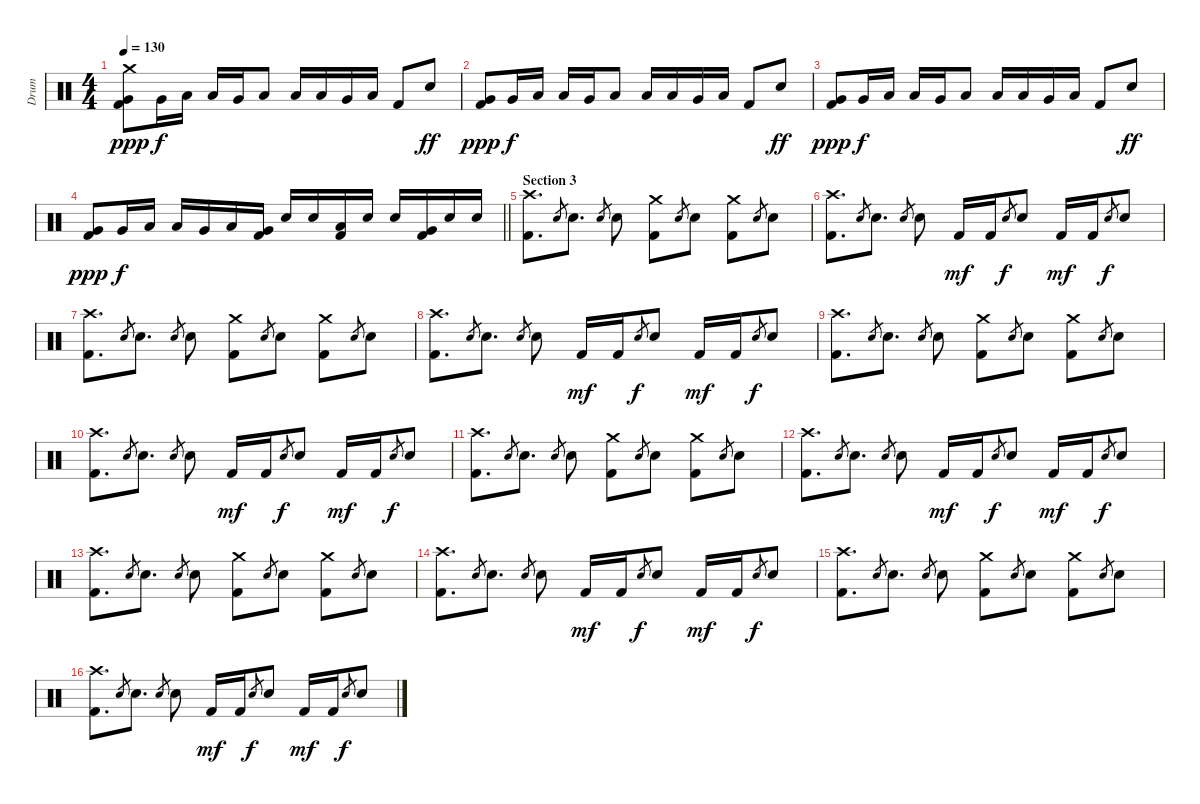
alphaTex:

\track ("Drum" "Drum") {instrument percussion}
\staff {score}
\articulation defaults
\ts (4 4)
\tempo 130
\clef neutral
\ks c
("Crash medium (hit)" "Very Low Tom (hit)" "Kick (hit) 2").8{dy ppp} "Very Low Tom (hit)".16{dy f} "Low Tom (hit)".16 "Low Tom (hit)".16 "Very Low Tom (hit)".16 "Low Tom (hit)".8 "Low Floor Tom (hit)".16 "Low Tom (hit)".16 "Very Low Tom (hit)".16 "Low Floor Tom (hit)".16 "Kick (hit) 2".8 "Electric Snare (hit)".8{dy ff} |
("Very Low Tom (hit)" "Kick (hit) 2").8{dy ppp} "Very Low Tom (hit)".16{dy f} "Low Tom (hit)".16 "Low Tom (hit)".16 "Very Low Tom (hit)".16 "Low Tom (hit)".8 "Low Floor Tom (hit)".16 "Low Tom (hit)".16 "Very Low Tom (hit)".16 "Low Floor Tom (hit)".16 "Kick (hit) 2".8 "Electric Snare (hit)".8{dy ff} |
("Very Low Tom (hit)" "Kick (hit) 2").8{dy ppp} "Very Low Tom (hit)".16{dy f} "Low Tom (hit)".16 "Low Tom (hit)".16 "Very Low Tom (hit)".16 "Low Tom (hit)".8 "Low Floor Tom (hit)".16 "Low Tom (hit)".16 "Very Low Tom (hit)".16 "Low Floor Tom (hit)".16 "Kick (hit) 2".8 "Electric Snare (hit)".8{dy ff} |
\barLineRight lightlight
("Very Low Tom (hit)" "Kick (hit) 2").8{dy ppp} "Very Low Tom (hit)".16{dy f} "Low Tom (hit)".16 "Low Tom (hit)".16 "Very Low Tom (hit)".16 "Low Tom (hit)".16 ("Kick (hit) 2" "Very Low Tom (hit)").16 "Electric Snare (hit)".16 "Electric Snare (hit)".16 ("Kick (hit) 2" "Low Floor Tom (hit)").16 "Electric Snare (hit)".16 "Electric Snare (hit)".16 ("Kick (hit) 2" "Very Low Tom (hit)").16 "Electric Snare (hit)".16 "Electric Snare (hit)".16 |
\section ("" "Section 3")
("Crash high (hit)" "Kick (hit) 2").8{d} "Electric Snare (hit)".8{gr} "Electric Snare (hit)".8{d} "Electric Snare (hit)".8{gr} "Electric Snare (hit)".8 ("Kick (hit) 2" "Crash medium (hit)").8 "Electric Snare (hit)".8{gr} "Electric Snare (hit)".8 ("Kick (hit) 2" "Crash medium (hit)").8 "Electric Snare (hit)".8{gr} "Electric Snare (hit)".8 |
("Crash high (hit)" "Kick (hit) 2").8{d} "Electric Snare (hit)".8{gr} "Electric Snare (hit)".8{d} "Electric Snare (hit)".8{gr} "Electric Snare (hit)".8 "Kick (hit) 2".16{dy mf} "Kick (hit) 2".16 "Electric Snare (hit)".8{gr dy f} "Electric Snare (hit)".8 "Kick (hit) 2".16{dy mf} "Kick (hit) 2".16 "Electric Snare (hit)".8{gr dy f} "Electric Snare (hit)".8 |
("Crash high (hit)" "Kick (hit) 2").8{d} "Electric Snare (hit)".8{gr} "Electric Snare (hit)".8{d} "Electric Snare (hit)".8{gr} "Electric Snare (hit)".8 ("Kick (hit) 2" "Crash medium (hit)").8 "Electric Snare (hit)".8{gr} "Electric Snare (hit)".8 ("Kick (hit) 2" "Crash medium (hit)").8 "Electric Snare (hit)".8{gr} "Electric Snare (hit)".8 |
("Crash high (hit)" "Kick (hit) 2").8{d} "Electric Snare (hit)".8{gr} "Electric Snare (hit)".8{d} "Electric Snare (hit)".8{gr} "Electric Snare (hit)".8 "Kick (hit) 2".16{dy mf} "Kick (hit) 2".16 "Electric Snare (hit)".8{gr dy f} "Electric Snare (hit)".8 "Kick (hit) 2".16{dy mf} "Kick (hit) 2".16 "Electric Snare (hit)".8{gr dy f} "Electric Snare (hit)".8 |
("Crash high (hit)" "Kick (hit) 2").8{d} "Electric Snare (hit)".8{gr} "Electric Snare (hit)".8{d} "Electric Snare (hit)".8{gr} "Electric Snare (hit)".8 ("Kick (hit) 2" "Crash medium (hit)").8 "Electric Snare (hit)".8{gr} "Electric Snare (hit)".8 ("Kick (hit) 2" "Crash medium (hit)").8 "Electric Snare (hit)".8{gr} "Electric Snare (hit)".8 |
("Crash high (hit)" "Kick (hit) 2").8{d} "Electric Snare (hit)".8{gr} "Electric Snare (hit)".8{d} "Electric Snare (hit)".8{gr} "Electric Snare (hit)".8 "Kick (hit) 2".16{dy mf} "Kick (hit) 2".16 "Electric Snare (hit)".8{gr dy f} "Electric Snare (hit)".8 "Kick (hit) 2".16{dy mf} "Kick (hit) 2".16 "Electric Snare (hit)".8{gr dy f} "Electric Snare (hit)".8 |
("Crash high (hit)" "Kick (hit) 2").8{d} "Electric Snare (hit)".8{gr} "Electric Snare (hit)".8{d} "Electric Snare (hit)".8{gr} "Electric Snare (hit)".8 ("Kick (hit) 2" "Crash medium (hit)").8 "Electric Snare (hit)".8{gr} "Electric Snare (hit)".8 ("Kick (hit) 2" "Crash medium (hit)").8 "Electric Snare (hit)".8{gr} "Electric Snare (hit)".8 |
("Crash high (hit)" "Kick (hit) 2").8{d} "Electric Snare (hit)".8{gr} "Electric Snare (hit)".8{d} "Electric Snare (hit)".8{gr} "Electric Snare (hit)".8 "Kick (hit) 2".16{dy mf} "Kick (hit) 2".16 "Electric Snare (hit)".8{gr dy f} "Electric Snare (hit)".8 "Kick (hit) 2".16{dy mf} "Kick (hit) 2".16 "Electric Snare (hit)".8{gr dy f} "Electric Snare (hit)".8 |
("Crash high (hit)" "Kick (hit) 2").8{d} "Electric Snare (hit)".8{gr} "Electric Snare (hit)".8{d} "Electric Snare (hit)".8{gr} "Electric Snare (hit)".8 ("Kick (hit) 2" "Crash medium (hit)").8 "Electric Snare (hit)".8{gr} "Electric Snare (hit)".8 ("Kick (hit) 2" "Crash medium (hit)").8 "Electric Snare (hit)".8{gr} "Electric Snare (hit)".8 |
("Crash high (hit)" "Kick (hit) 2").8{d} "Electric Snare (hit)".8{gr} "Electric Snare (hit)".8{d} "Electric Snare (hit)".8{gr} "Electric Snare (hit)".8 "Kick (hit) 2".16{dy mf} "Kick (hit) 2".16 "Electric Snare (hit)".8{gr dy f} "Electric Snare (hit)".8 "Kick (hit) 2".16{dy mf} "Kick (hit) 2".16 "Electric Snare (hit)".8{gr dy f} "Electric Snare (hit)".8 |
("Crash high (hit)" "Kick (hit) 2").8{d} "Electric Snare (hit)".8{gr} "Electric Snare (hit)".8{d} "Electric Snare (hit)".8{gr} "Electric Snare (hit)".8 ("Kick (hit) 2" "Crash medium (hit)").8 "Electric Snare (hit)".8{gr} "Electric Snare (hit)".8 ("Kick (hit) 2" "Crash medium (hit)").8 "Electric Snare (hit)".8{gr} "Electric Snare (hit)".8 |
("Crash high (hit)" "Kick (hit) 2").8{d} "Electric Snare (hit)".8{gr} "Electric Snare (hit)".8{d} "Electric Snare (hit)".8{gr} "Electric Snare (hit)".8 "Kick (hit) 2".16{dy mf} "Kick (hit) 2".16 "Electric Snare (hit)".8{gr dy f} "Electric Snare (hit)".8 "Kick (hit) 2".16{dy mf} "Kick (hit) 2".16 "Electric Snare (hit)".8{gr dy f} "Electric Snare (hit)".8
